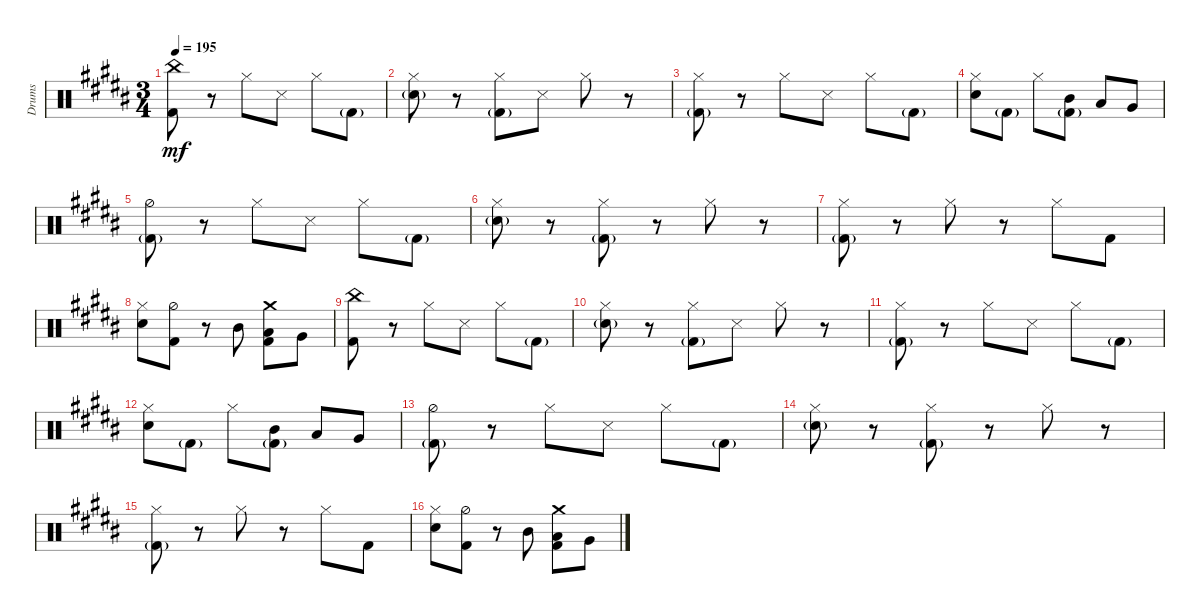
\bracketExtendMode groupsimilarinstruments
\otherSystemsTrackNameOrientation horizontal
\track ("Drumkit" "Drums") {instrument percussion}
\staff {score}
\articulation defaults
\ts (3 4)
\tempo 195
\clef neutral
\ks b
("Kick (hit) 2"{acc bb} "China (hit)"{acc bb}).8{dy mf beam Down} r.8{beam Down} "Hi-Hat (closed)"{acc bb}.8{beam Down} "Snare (side stick) 3"{acc bb}.8{beam Down} "Hi-Hat (closed)"{acc bb}.8{beam Down} "Kick (hit) 2"{g acc bb}.8{beam Down} |
("Snare (hit) 2"{g acc bb} "Hi-Hat (closed)"{acc bb}).8{beam Down} r.8{beam Down} ("Kick (hit) 2"{g acc bb} "Hi-Hat (closed)"{acc bb}).8{beam Down} "Snare (side stick) 3"{acc bb}.8{beam Down} "Hi-Hat (closed)"{acc bb}.8{beam Down} r.8{beam Down} |
("Kick (hit) 2"{g acc bb} "Hi-Hat (closed)"{acc bb}).8{beam Down} r.8{beam Down} "Hi-Hat (closed)"{acc bb}.8{beam Down} "Snare (side stick) 3"{acc bb}.8{beam Down} "Hi-Hat (closed)"{acc bb}.8{beam Down} "Kick (hit) 2"{g acc bb}.8{beam Down} |
("Snare (hit) 2"{acc bb} "Hi-Hat (closed)"{acc bb}).8{beam Down} "Kick (hit) 2"{g acc bb}.8{beam Down} "Hi-Hat (closed)"{acc bb}.8{beam Down} ("Mid Tom (hit)"{acc bb} "Kick (hit) 2"{g acc bb}).8{beam Down} "Low Tom (hit)"{acc bb}.8{beam Up} "Very Low Tom (hit)"{acc bb}.8{beam Up} |
("Kick (hit) 2"{g acc bb} "Hi-Hat (half)"{acc bb}).8{beam Down} r.8{beam Down} "Hi-Hat (closed)"{acc bb}.8{beam Down} "Snare (side stick) 3"{acc bb}.8{beam Down} "Hi-Hat (closed)"{acc bb}.8{beam Down} "Kick (hit) 2"{g acc bb}.8{beam Down} |
("Snare (hit) 2"{g acc bb} "Hi-Hat (closed)"{acc bb}).8{beam Down} r.8{beam Down} ("Kick (hit) 2"{g acc bb} "Hi-Hat (closed)"{acc bb}).8{beam Down} r.8{beam Down} "Hi-Hat (closed)"{acc bb}.8{beam Down} r.8{beam Down} |
("Kick (hit) 2"{g acc bb} "Hi-Hat (closed)"{acc bb}).8{beam Down} r.8{beam Down} "Hi-Hat (closed)"{acc bb}.8{beam Down} r.8{beam Down} "Hi-Hat (closed)"{acc bb}.8{beam Down} "Kick (hit) 2"{acc bb}.8{beam Down} |
("Snare (hit) 2"{acc bb} "Hi-Hat (closed)"{acc bb}).8{beam Down} ("Kick (hit) 2"{acc bb} "Hi-Hat (half)"{acc bb}).8{beam Down} r.8{beam Down} "Mid Tom (hit)"{acc bb}.8{beam Down} ("Low Tom (hit)"{acc bb} "Crash medium (hit)"{acc bb} "Kick (hit) 2"{acc bb}).8{beam Down} "Very Low Tom (hit)"{acc bb}.8{beam Down} |
("Kick (hit) 2"{acc bb} "China (hit)"{acc bb}).8{beam Down} r.8{beam Down} "Hi-Hat (closed)"{acc bb}.8{beam Down} "Snare (side stick) 3"{acc bb}.8{beam Down} "Hi-Hat (closed)"{acc bb}.8{beam Down} "Kick (hit) 2"{g acc bb}.8{beam Down} |
("Snare (hit) 2"{g acc bb} "Hi-Hat (closed)"{acc bb}).8{beam Down} r.8{beam Down} ("Kick (hit) 2"{g acc bb} "Hi-Hat (closed)"{acc bb}).8{beam Down} "Snare (side stick) 3"{acc bb}.8{beam Down} "Hi-Hat (closed)"{acc bb}.8{beam Down} r.8{beam Down} |
("Kick (hit) 2"{g acc bb} "Hi-Hat (closed)"{acc bb}).8{beam Down} r.8{beam Down} "Hi-Hat (closed)"{acc bb}.8{beam Down} "Snare (side stick) 3"{acc bb}.8{beam Down} "Hi-Hat (closed)"{acc bb}.8{beam Down} "Kick (hit) 2"{g acc bb}.8{beam Down} |
("Snare (hit) 2"{acc bb} "Hi-Hat (closed)"{acc bb}).8{beam Down} "Kick (hit) 2"{g acc bb}.8{beam Down} "Hi-Hat (closed)"{acc bb}.8{beam Down} ("Mid Tom (hit)"{acc bb} "Kick (hit) 2"{g acc bb}).8{beam Down} "Low Tom (hit)"{acc bb}.8{beam Up} "Very Low Tom (hit)"{acc bb}.8{beam Up} |
("Kick (hit) 2"{g acc bb} "Hi-Hat (half)"{acc bb}).8{beam Down} r.8{beam Down} "Hi-Hat (closed)"{acc bb}.8{beam Down} "Snare (side stick) 3"{acc bb}.8{beam Down} "Hi-Hat (closed)"{acc bb}.8{beam Down} "Kick (hit) 2"{g acc bb}.8{beam Down} |
("Snare (hit) 2"{g acc bb} "Hi-Hat (closed)"{acc bb}).8{beam Down} r.8{beam Down} ("Kick (hit) 2"{g acc bb} "Hi-Hat (closed)"{acc bb}).8{beam Down} r.8{beam Down} "Hi-Hat (closed)"{acc bb}.8{beam Down} r.8{beam Down} |
("Kick (hit) 2"{g acc bb} "Hi-Hat (closed)"{acc bb}).8{beam Down} r.8{beam Down} "Hi-Hat (closed)"{acc bb}.8{beam Down} r.8{beam Down} "Hi-Hat (closed)"{acc bb}.8{beam Down} "Kick (hit) 2"{acc bb}.8{beam Down} |
("Snare (hit) 2"{acc bb} "Hi-Hat (closed)"{acc bb}).8{beam Down} ("Kick (hit) 2"{acc bb} "Hi-Hat (half)"{acc bb}).8{beam Down} r.8{beam Down} "Mid Tom (hit)"{acc bb}.8{beam Down} ("Low Tom (hit)"{acc bb} "Crash medium (hit)"{acc bb} "Kick (hit) 2"{acc bb}).8{beam Down} "Very Low Tom (hit)"{acc bb}.8{beam Down}
